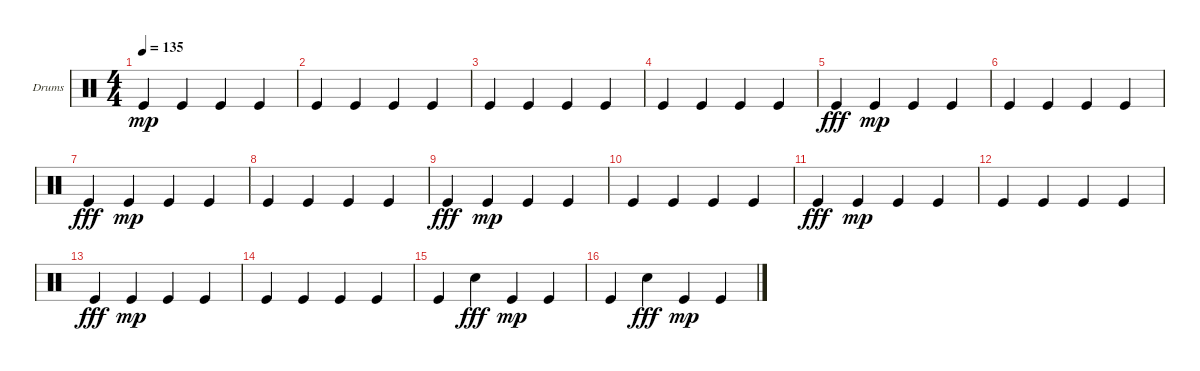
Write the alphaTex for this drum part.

\defaultSystemsLayout 4
\bracketExtendMode groupsimilarinstruments
\firstSystemTrackNameOrientation horizontal
\otherSystemsTrackNameOrientation horizontal
\track ("Helders" "Drums") {instrument percussion}
\staff {score}
\articulation defaults
\ts (4 4)
\tempo 135
\clef neutral
\ks c "Kick (hit)".4{dy mp} "Kick (hit)".4 "Kick (hit)".4 "Kick (hit)".4
|
"Kick (hit)".4 "Kick (hit)".4 "Kick (hit)".4 "Kick (hit)".4 |
"Kick (hit)".4 "Kick (hit)".4 "Kick (hit)".4 "Kick (hit)".4 |
"Kick (hit)".4 "Kick (hit)".4 "Kick (hit)".4 "Kick (hit)".4 |
"Kick (hit)".4{dy fff} "Kick (hit)".4{dy mp} "Kick (hit)".4 "Kick (hit)".4 |
"Kick (hit)".4 "Kick (hit)".4 "Kick (hit)".4 "Kick (hit)".4 |
"Kick (hit)".4{dy fff} "Kick (hit)".4{dy mp} "Kick (hit)".4 "Kick (hit)".4 |
"Kick (hit)".4 "Kick (hit)".4 "Kick (hit)".4 "Kick (hit)".4 |
"Kick (hit)".4{dy fff} "Kick (hit)".4{dy mp} "Kick (hit)".4 "Kick (hit)".4 |
"Kick (hit)".4 "Kick (hit)".4 "Kick (hit)".4 "Kick (hit)".4 |
"Kick (hit)".4{dy fff} "Kick (hit)".4{dy mp} "Kick (hit)".4 "Kick (hit)".4 |
"Kick (hit)".4 "Kick (hit)".4 "Kick (hit)".4 "Kick (hit)".4 |
"Kick (hit)".4{dy fff} "Kick (hit)".4{dy mp} "Kick (hit)".4 "Kick (hit)".4 |
"Kick (hit)".4 "Kick (hit)".4 "Kick (hit)".4 "Kick (hit)".4 |
"Kick (hit)".4 "Snare (hit) 2".4{dy fff} "Kick (hit)".4{dy mp} "Kick (hit)".4 |
"Kick (hit)".4 "Snare (hit) 2".4{dy fff} "Kick (hit)".4{dy mp} "Kick (hit)".4
